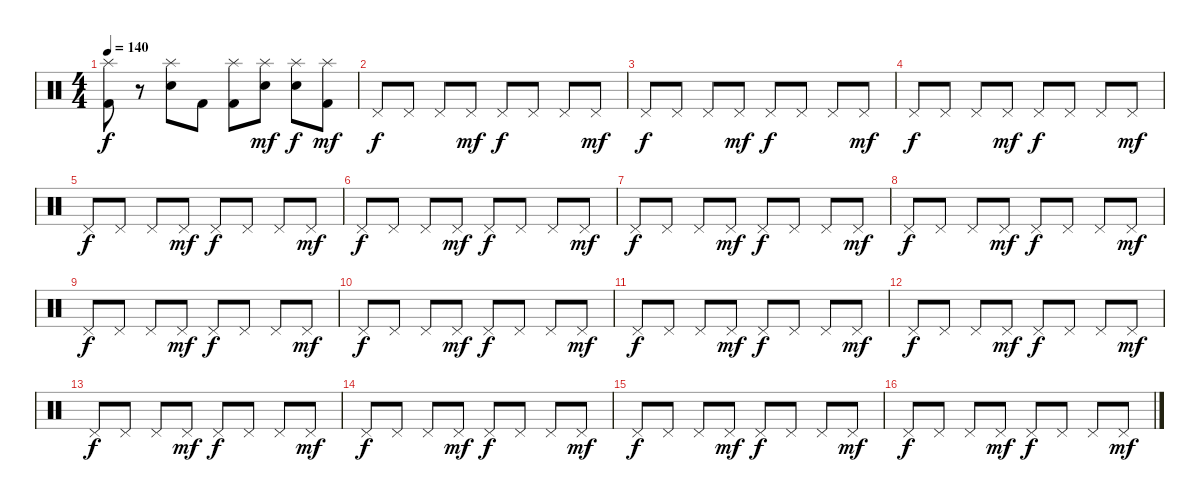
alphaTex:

\track "" {instrument percussion}
\staff {score}
\articulation defaults
\ts (4 4)
\tempo 140
\clef neutral
\ks c
("Splash (hit)" "Kick (hit) 2").8{dy f} r.8 ("Splash (hit)" "Electric Snare (hit)").8 "Kick (hit) 2".8 ("Splash (hit)" "Kick (hit) 2").8 ("Splash (hit)" "Electric Snare (hit)").8{dy mf} ("Splash (hit)" "Electric Snare (hit)").8{dy f} ("Splash (hit)" "Kick (hit) 2").8{dy mf} |
"Pedal Hi-Hat (hit)".8{dy f} "Pedal Hi-Hat (hit)".8{volume 10} "Pedal Hi-Hat (hit)".8 "Pedal Hi-Hat (hit)".8{dy mf} "Pedal Hi-Hat (hit)".8{dy f} "Pedal Hi-Hat (hit)".8 "Pedal Hi-Hat (hit)".8 "Pedal Hi-Hat (hit)".8{dy mf} |
"Pedal Hi-Hat (hit)".8{dy f} "Pedal Hi-Hat (hit)".8 "Pedal Hi-Hat (hit)".8 "Pedal Hi-Hat (hit)".8{dy mf} "Pedal Hi-Hat (hit)".8{dy f} "Pedal Hi-Hat (hit)".8 "Pedal Hi-Hat (hit)".8 "Pedal Hi-Hat (hit)".8{dy mf} |
"Pedal Hi-Hat (hit)".8{dy f} "Pedal Hi-Hat (hit)".8 "Pedal Hi-Hat (hit)".8 "Pedal Hi-Hat (hit)".8{dy mf} "Pedal Hi-Hat (hit)".8{dy f} "Pedal Hi-Hat (hit)".8 "Pedal Hi-Hat (hit)".8 "Pedal Hi-Hat (hit)".8{dy mf} |
"Pedal Hi-Hat (hit)".8{dy f} "Pedal Hi-Hat (hit)".8 "Pedal Hi-Hat (hit)".8 "Pedal Hi-Hat (hit)".8{dy mf} "Pedal Hi-Hat (hit)".8{dy f} "Pedal Hi-Hat (hit)".8 "Pedal Hi-Hat (hit)".8 "Pedal Hi-Hat (hit)".8{dy mf} |
"Pedal Hi-Hat (hit)".8{dy f} "Pedal Hi-Hat (hit)".8 "Pedal Hi-Hat (hit)".8 "Pedal Hi-Hat (hit)".8{dy mf} "Pedal Hi-Hat (hit)".8{dy f} "Pedal Hi-Hat (hit)".8 "Pedal Hi-Hat (hit)".8 "Pedal Hi-Hat (hit)".8{dy mf} |
"Pedal Hi-Hat (hit)".8{dy f} "Pedal Hi-Hat (hit)".8 "Pedal Hi-Hat (hit)".8 "Pedal Hi-Hat (hit)".8{dy mf} "Pedal Hi-Hat (hit)".8{dy f} "Pedal Hi-Hat (hit)".8 "Pedal Hi-Hat (hit)".8 "Pedal Hi-Hat (hit)".8{dy mf} |
"Pedal Hi-Hat (hit)".8{dy f} "Pedal Hi-Hat (hit)".8 "Pedal Hi-Hat (hit)".8 "Pedal Hi-Hat (hit)".8{dy mf} "Pedal Hi-Hat (hit)".8{dy f} "Pedal Hi-Hat (hit)".8 "Pedal Hi-Hat (hit)".8 "Pedal Hi-Hat (hit)".8{dy mf} |
"Pedal Hi-Hat (hit)".8{dy f} "Pedal Hi-Hat (hit)".8 "Pedal Hi-Hat (hit)".8 "Pedal Hi-Hat (hit)".8{dy mf} "Pedal Hi-Hat (hit)".8{dy f} "Pedal Hi-Hat (hit)".8 "Pedal Hi-Hat (hit)".8 "Pedal Hi-Hat (hit)".8{dy mf} |
"Pedal Hi-Hat (hit)".8{dy f} "Pedal Hi-Hat (hit)".8 "Pedal Hi-Hat (hit)".8 "Pedal Hi-Hat (hit)".8{dy mf} "Pedal Hi-Hat (hit)".8{dy f} "Pedal Hi-Hat (hit)".8 "Pedal Hi-Hat (hit)".8 "Pedal Hi-Hat (hit)".8{dy mf} |
"Pedal Hi-Hat (hit)".8{dy f} "Pedal Hi-Hat (hit)".8 "Pedal Hi-Hat (hit)".8 "Pedal Hi-Hat (hit)".8{dy mf} "Pedal Hi-Hat (hit)".8{dy f} "Pedal Hi-Hat (hit)".8 "Pedal Hi-Hat (hit)".8 "Pedal Hi-Hat (hit)".8{dy mf} |
"Pedal Hi-Hat (hit)".8{dy f} "Pedal Hi-Hat (hit)".8 "Pedal Hi-Hat (hit)".8 "Pedal Hi-Hat (hit)".8{dy mf} "Pedal Hi-Hat (hit)".8{dy f} "Pedal Hi-Hat (hit)".8 "Pedal Hi-Hat (hit)".8 "Pedal Hi-Hat (hit)".8{dy mf} |
"Pedal Hi-Hat (hit)".8{dy f} "Pedal Hi-Hat (hit)".8 "Pedal Hi-Hat (hit)".8 "Pedal Hi-Hat (hit)".8{dy mf} "Pedal Hi-Hat (hit)".8{dy f} "Pedal Hi-Hat (hit)".8 "Pedal Hi-Hat (hit)".8 "Pedal Hi-Hat (hit)".8{dy mf} |
"Pedal Hi-Hat (hit)".8{dy f} "Pedal Hi-Hat (hit)".8 "Pedal Hi-Hat (hit)".8 "Pedal Hi-Hat (hit)".8{dy mf} "Pedal Hi-Hat (hit)".8{dy f} "Pedal Hi-Hat (hit)".8 "Pedal Hi-Hat (hit)".8 "Pedal Hi-Hat (hit)".8{dy mf} |
"Pedal Hi-Hat (hit)".8{dy f} "Pedal Hi-Hat (hit)".8 "Pedal Hi-Hat (hit)".8 "Pedal Hi-Hat (hit)".8{dy mf} "Pedal Hi-Hat (hit)".8{dy f} "Pedal Hi-Hat (hit)".8 "Pedal Hi-Hat (hit)".8 "Pedal Hi-Hat (hit)".8{dy mf} |
"Pedal Hi-Hat (hit)".8{dy f} "Pedal Hi-Hat (hit)".8 "Pedal Hi-Hat (hit)".8 "Pedal Hi-Hat (hit)".8{dy mf} "Pedal Hi-Hat (hit)".8{dy f} "Pedal Hi-Hat (hit)".8 "Pedal Hi-Hat (hit)".8 "Pedal Hi-Hat (hit)".8{dy mf}
